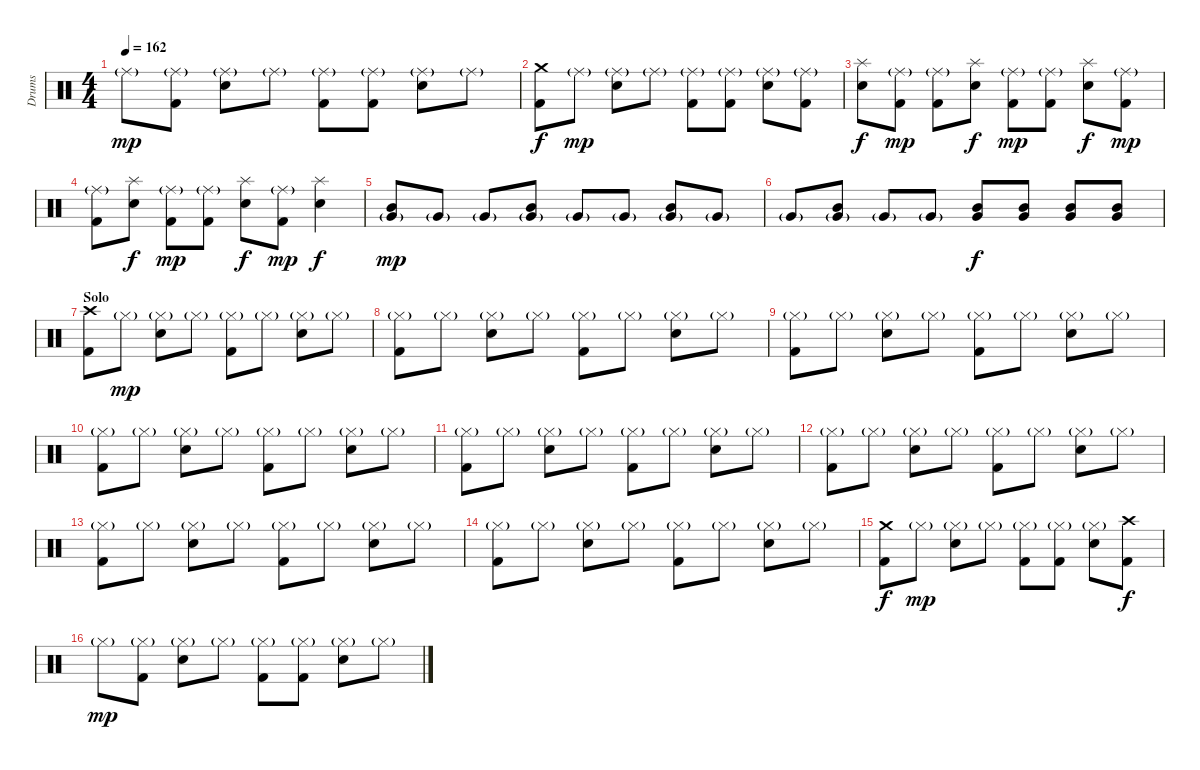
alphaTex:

\track ("Drums" "Drums") {instrument percussion}
\staff {score}
\articulation defaults
\ts (4 4)
\tempo 162
\clef neutral
\ks c "Ride (middle)"{g}.8{dy mp}
("Ride (middle)"{g} "Kick (hit) 2").8 ("Ride (middle)"{g} "Snare (hit) 2").8 "Ride (middle)"{g}.8 ("Ride (middle)"{g} "Kick (hit) 2").8 ("Ride (middle)"{g} "Kick (hit) 2").8 ("Ride (middle)"{g} "Snare (hit) 2").8 "Ride (middle)"{g}.8 |
("Crash medium (hit)" "Kick (hit) 2").8{dy f} "Ride (middle)"{g}.8{dy mp} ("Ride (middle)"{g} "Snare (hit) 2").8 "Ride (middle)"{g}.8 ("Ride (middle)"{g} "Kick (hit) 2").8 ("Ride (middle)"{g} "Kick (hit) 2").8 ("Ride (middle)"{g} "Snare (hit) 2").8 ("Ride (middle)"{g} "Kick (hit) 2").8 |
("Splash (hit)" "Snare (hit) 2").8{dy f} ("Ride (middle)"{g} "Kick (hit) 2").8{dy mp} ("Ride (middle)"{g} "Kick (hit) 2").8 ("Splash (hit)" "Snare (hit) 2").8{dy f} ("Ride (middle)"{g} "Kick (hit) 2").8{dy mp} ("Ride (middle)"{g} "Kick (hit) 2").8 ("Splash (hit)" "Snare (hit) 2").8{dy f} ("Ride (middle)"{g} "Kick (hit) 2").8{dy mp} |
("Ride (middle)"{g} "Kick (hit) 2").8 ("Splash (hit)" "Snare (hit) 2").8{dy f} ("Ride (middle)"{g} "Kick (hit) 2").8{dy mp} ("Ride (middle)"{g} "Kick (hit) 2").8 ("Splash (hit)" "Snare (hit) 2").8{dy f} ("Ride (middle)"{g} "Kick (hit) 2").8{dy mp} ("Splash (hit)" "Snare (hit) 2").4{dy f} |
("Mid Tom (hit)" "Very Low Tom (hit)"{g}).8{dy mp} "Very Low Tom (hit)"{g}.8 "Very Low Tom (hit)"{g}.8 ("Mid Tom (hit)" "Very Low Tom (hit)"{g}).8 "Very Low Tom (hit)"{g}.8 "Very Low Tom (hit)"{g}.8 ("Mid Tom (hit)" "Very Low Tom (hit)"{g}).8 "Very Low Tom (hit)"{g}.8 |
"Very Low Tom (hit)"{g}.8 ("Mid Tom (hit)" "Very Low Tom (hit)"{g}).8 "Very Low Tom (hit)"{g}.8 "Very Low Tom (hit)"{g}.8 ("Mid Tom (hit)" "Very Low Tom (hit)").8{dy f volume 11} ("Mid Tom (hit)" "Very Low Tom (hit)").8{volume 12} ("Mid Tom (hit)" "Very Low Tom (hit)").8{volume 13} ("Mid Tom (hit)" "Very Low Tom (hit)").8{volume 14} |
\section ("" "Solo")
("Crash high (hit)" "Kick (hit) 2").8 "Hi-Hat (closed)"{g}.8{dy mp} ("Hi-Hat (closed)"{g} "Snare (hit) 2").8 "Hi-Hat (closed)"{g}.8 ("Hi-Hat (closed)"{g} "Kick (hit) 2").8 "Hi-Hat (closed)"{g}.8 ("Hi-Hat (closed)"{g} "Snare (hit) 2").8 "Hi-Hat (closed)"{g}.8 |
("Hi-Hat (closed)"{g} "Kick (hit) 2").8 "Hi-Hat (closed)"{g}.8 ("Hi-Hat (closed)"{g} "Snare (hit) 2").8 "Hi-Hat (closed)"{g}.8 ("Hi-Hat (closed)"{g} "Kick (hit) 2").8 "Hi-Hat (closed)"{g}.8 ("Hi-Hat (closed)"{g} "Snare (hit) 2").8 "Hi-Hat (closed)"{g}.8 |
("Hi-Hat (closed)"{g} "Kick (hit) 2").8 "Hi-Hat (closed)"{g}.8 ("Hi-Hat (closed)"{g} "Snare (hit) 2").8 "Hi-Hat (closed)"{g}.8 ("Hi-Hat (closed)"{g} "Kick (hit) 2").8 "Hi-Hat (closed)"{g}.8 ("Hi-Hat (closed)"{g} "Snare (hit) 2").8 "Hi-Hat (closed)"{g}.8 |
("Hi-Hat (closed)"{g} "Kick (hit) 2").8 "Hi-Hat (closed)"{g}.8 ("Hi-Hat (closed)"{g} "Snare (hit) 2").8 "Hi-Hat (closed)"{g}.8 ("Hi-Hat (closed)"{g} "Kick (hit) 2").8 "Hi-Hat (closed)"{g}.8 ("Hi-Hat (closed)"{g} "Snare (hit) 2").8 "Hi-Hat (closed)"{g}.8 |
("Hi-Hat (closed)"{g} "Kick (hit) 2").8 "Hi-Hat (closed)"{g}.8 ("Hi-Hat (closed)"{g} "Snare (hit) 2").8 "Hi-Hat (closed)"{g}.8 ("Hi-Hat (closed)"{g} "Kick (hit) 2").8 "Hi-Hat (closed)"{g}.8 ("Hi-Hat (closed)"{g} "Snare (hit) 2").8 "Hi-Hat (closed)"{g}.8 |
("Hi-Hat (closed)"{g} "Kick (hit) 2").8 "Hi-Hat (closed)"{g}.8 ("Hi-Hat (closed)"{g} "Snare (hit) 2").8 "Hi-Hat (closed)"{g}.8 ("Hi-Hat (closed)"{g} "Kick (hit) 2").8 "Hi-Hat (closed)"{g}.8 ("Hi-Hat (closed)"{g} "Snare (hit) 2").8 "Hi-Hat (closed)"{g}.8 |
("Hi-Hat (closed)"{g} "Kick (hit) 2").8 "Hi-Hat (closed)"{g}.8 ("Hi-Hat (closed)"{g} "Snare (hit) 2").8 "Hi-Hat (closed)"{g}.8 ("Hi-Hat (closed)"{g} "Kick (hit) 2").8 "Hi-Hat (closed)"{g}.8 ("Hi-Hat (closed)"{g} "Snare (hit) 2").8 "Hi-Hat (closed)"{g}.8 |
("Hi-Hat (closed)"{g} "Kick (hit) 2").8 "Hi-Hat (closed)"{g}.8 ("Hi-Hat (closed)"{g} "Snare (hit) 2").8 "Hi-Hat (closed)"{g}.8 ("Hi-Hat (closed)"{g} "Kick (hit) 2").8 "Hi-Hat (closed)"{g}.8 ("Hi-Hat (closed)"{g} "Snare (hit) 2").8 "Hi-Hat (closed)"{g}.8 |
("Crash medium (hit)" "Kick (hit) 2").8{dy f} "Hi-Hat (closed)"{g}.8{dy mp} ("Hi-Hat (closed)"{g} "Snare (hit) 2").8 "Hi-Hat (closed)"{g}.8 ("Hi-Hat (closed)"{g} "Kick (hit) 2").8 ("Hi-Hat (closed)"{g} "Kick (hit) 2").8 ("Hi-Hat (closed)"{g} "Snare (hit) 2").8 ("Crash high (hit)" "Kick (hit) 2").8{dy f} |
"Hi-Hat (closed)"{g}.8{dy mp} ("Hi-Hat (closed)"{g} "Kick (hit) 2").8 ("Hi-Hat (closed)"{g} "Snare (hit) 2").8 "Hi-Hat (closed)"{g}.8 ("Hi-Hat (closed)"{g} "Kick (hit) 2").8 ("Hi-Hat (closed)"{g} "Kick (hit) 2").8 ("Hi-Hat (closed)"{g} "Snare (hit) 2").8 "Hi-Hat (closed)"{g}.8
